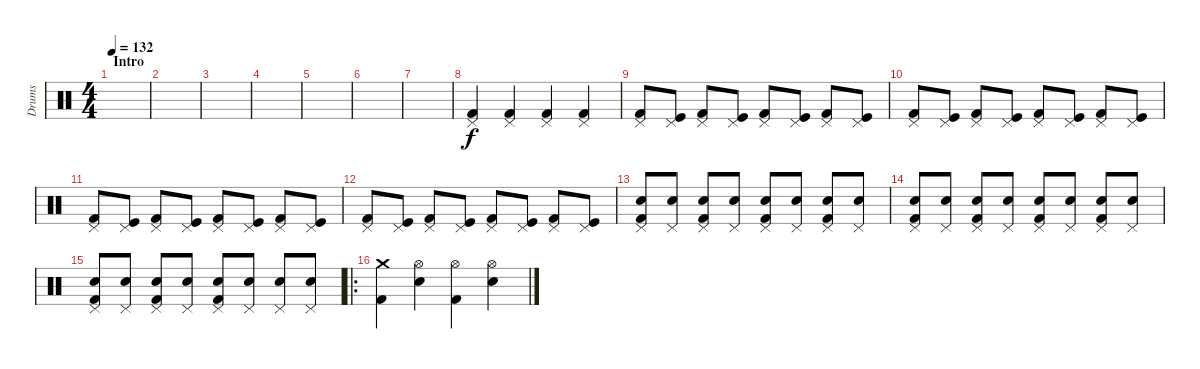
\track ("Drums" "Drums") {instrument percussion}
\staff {score}
\articulation defaults
\ts (4 4)
\section ("" "Intro")
\tempo 132
\clef neutral
\ks c
|
|
|
|
|
|
|
("Kick (hit) 2" "Pedal Hi-Hat (hit)").4{volume 8} ("Kick (hit) 2" "Pedal Hi-Hat (hit)").4 ("Kick (hit) 2" "Pedal Hi-Hat (hit)").4 ("Kick (hit) 2" "Pedal Hi-Hat (hit)").4 |
("Kick (hit) 2" "Pedal Hi-Hat (hit)").8{volume 8} ("Kick (hit)" "Pedal Hi-Hat (hit)").8 ("Kick (hit) 2" "Pedal Hi-Hat (hit)").8 ("Kick (hit)" "Pedal Hi-Hat (hit)").8 ("Kick (hit) 2" "Pedal Hi-Hat (hit)").8 ("Kick (hit)" "Pedal Hi-Hat (hit)").8 ("Kick (hit) 2" "Pedal Hi-Hat (hit)").8 ("Kick (hit)" "Pedal Hi-Hat (hit)").8 |
("Kick (hit) 2" "Pedal Hi-Hat (hit)").8{volume 9} ("Kick (hit)" "Pedal Hi-Hat (hit)").8 ("Kick (hit) 2" "Pedal Hi-Hat (hit)").8 ("Kick (hit)" "Pedal Hi-Hat (hit)").8 ("Kick (hit) 2" "Pedal Hi-Hat (hit)").8 ("Kick (hit)" "Pedal Hi-Hat (hit)").8 ("Kick (hit) 2" "Pedal Hi-Hat (hit)").8 ("Kick (hit)" "Pedal Hi-Hat (hit)").8 |
("Kick (hit) 2" "Pedal Hi-Hat (hit)").8{volume 10} ("Kick (hit)" "Pedal Hi-Hat (hit)").8 ("Kick (hit) 2" "Pedal Hi-Hat (hit)").8 ("Kick (hit)" "Pedal Hi-Hat (hit)").8 ("Kick (hit) 2" "Pedal Hi-Hat (hit)").8 ("Kick (hit)" "Pedal Hi-Hat (hit)").8 ("Kick (hit) 2" "Pedal Hi-Hat (hit)").8 ("Kick (hit)" "Pedal Hi-Hat (hit)").8 |
("Kick (hit) 2" "Pedal Hi-Hat (hit)").8{volume 10} ("Kick (hit)" "Pedal Hi-Hat (hit)").8 ("Kick (hit) 2" "Pedal Hi-Hat (hit)").8 ("Kick (hit)" "Pedal Hi-Hat (hit)").8 ("Kick (hit) 2" "Pedal Hi-Hat (hit)").8 ("Kick (hit)" "Pedal Hi-Hat (hit)").8 ("Kick (hit) 2" "Pedal Hi-Hat (hit)").8 ("Kick (hit)" "Pedal Hi-Hat (hit)").8 |
("Kick (hit) 2" "Electric Snare (hit)" "Pedal Hi-Hat (hit)").8{volume 10} ("Electric Snare (hit)" "Pedal Hi-Hat (hit)").8 ("Kick (hit) 2" "Electric Snare (hit)" "Pedal Hi-Hat (hit)").8 ("Electric Snare (hit)" "Pedal Hi-Hat (hit)").8 ("Kick (hit) 2" "Electric Snare (hit)" "Pedal Hi-Hat (hit)").8 ("Electric Snare (hit)" "Pedal Hi-Hat (hit)").8 ("Kick (hit) 2" "Electric Snare (hit)" "Pedal Hi-Hat (hit)").8 ("Electric Snare (hit)" "Pedal Hi-Hat (hit)").8 |
("Kick (hit) 2" "Electric Snare (hit)" "Pedal Hi-Hat (hit)").8{volume 11} ("Electric Snare (hit)" "Pedal Hi-Hat (hit)").8 ("Kick (hit) 2" "Electric Snare (hit)" "Pedal Hi-Hat (hit)").8 ("Electric Snare (hit)" "Pedal Hi-Hat (hit)").8 ("Kick (hit) 2" "Electric Snare (hit)" "Pedal Hi-Hat (hit)").8 ("Electric Snare (hit)" "Pedal Hi-Hat (hit)").8 ("Kick (hit) 2" "Electric Snare (hit)" "Pedal Hi-Hat (hit)").8 ("Electric Snare (hit)" "Pedal Hi-Hat (hit)").8 |
("Kick (hit) 2" "Electric Snare (hit)" "Pedal Hi-Hat (hit)").8{volume 11} ("Electric Snare (hit)" "Pedal Hi-Hat (hit)").8 ("Kick (hit) 2" "Electric Snare (hit)" "Pedal Hi-Hat (hit)").8 ("Electric Snare (hit)" "Pedal Hi-Hat (hit)").8 ("Kick (hit) 2" "Electric Snare (hit)" "Pedal Hi-Hat (hit)").8 ("Electric Snare (hit)" "Pedal Hi-Hat (hit)").8 ("Electric Snare (hit)" "Pedal Hi-Hat (hit)").8 ("Electric Snare (hit)" "Pedal Hi-Hat (hit)").8 |
\ro
("Kick (hit) 2" "Crash medium (hit)").4{volume 9} ("Electric Snare (hit)" "Hi-Hat (open)").4 ("Kick (hit) 2" "Hi-Hat (open)").4 ("Electric Snare (hit)" "Hi-Hat (open)").4
